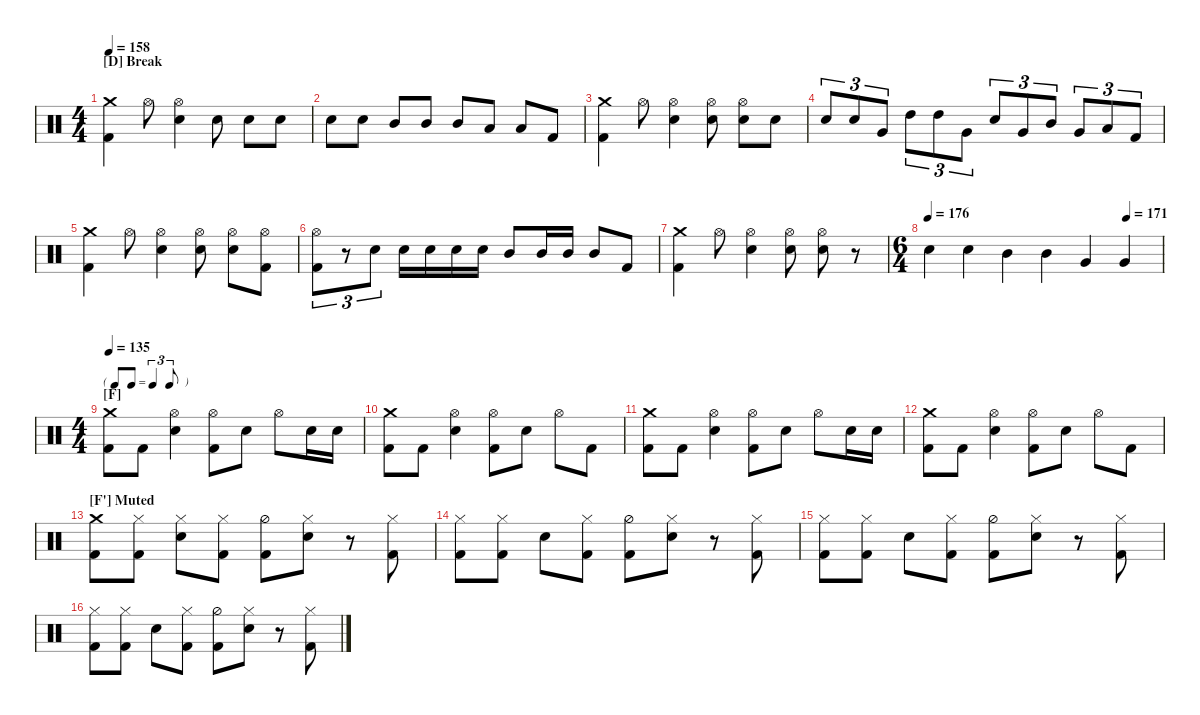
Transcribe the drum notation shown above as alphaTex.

\defaultSystemsLayout 4
\hideDynamics
\bracketExtendMode nobrackets
\singleTrackTrackNamePolicy hidden
\multiTrackTrackNamePolicy hidden
\firstSystemTrackNameMode fullname
\firstSystemTrackNameOrientation horizontal
\otherSystemsTrackNameOrientation horizontal
\track ("Drum" "Drums") {instrument percussion}
\staff {score}
\articulation defaults
\ts (4 4)
\section ("D" "Break")
\scale
0.296651
\tempo 158
\accidentals auto
\clef neutral
\ottava regular
\simile none
\scale
0.209581
\ks c
("Kick (hit) 2" "Crash medium (hit)").4{dy f beam Down} "Hi-Hat (open)".8{beam Down} ("Snare (hit) 2" "Hi-Hat (open)").4{beam Down} "Snare (hit) 2".8{beam Down} "Snare (hit) 2".8{beam Down} "Snare (hit) 2".8{beam Down} |
\scale
0.150718
\scale
0.239521 "Snare (hit) 2".8{beam Down} "Snare (hit) 2".8{beam Down} "Mid Tom (hit)".8{beam Up} "Mid Tom (hit)".8{beam Up} "Mid Tom (hit)".8{beam Up} "Low Tom (hit)".8{beam Up} "Low Tom (hit)".8{beam Up} "Kick (hit) 2".8{beam Up} |
\scale
0.401914
\scale
0.209581 ("Kick (hit) 2" "Crash medium (hit)").4{beam Down} "Hi-Hat (open)".8{beam Down} ("Snare (hit) 2" "Hi-Hat (open)").4{beam Down} ("Snare (hit) 2" "Hi-Hat (open)").8{beam Down} ("Snare (hit) 2" "Hi-Hat (open)").8{beam Down} "Snare (hit) 2".8{beam Down} |
\scale
0.150718
\scale
0.341317 "Snare (hit) 2".8{tu (3 2) beam Up} "Snare (hit) 2".8{tu (3 2) beam Up} "Very Low Tom (hit)".8{tu (3 2) beam Up} "High Tom (hit)".8{tu (3 2) beam Down} "High Tom (hit)".8{tu (3 2) beam Down} "Very Low Tom (hit)".8{tu (3 2) beam Down} "Snare (hit) 2".8{tu (3 2) beam Up} "Very Low Tom (hit)".8{tu (3 2) beam Up} "Mid Tom (hit)".8{tu (3 2) beam Up} "Very Low Tom (hit)".8{tu (3 2) beam Up} "Low Tom (hit)".8{tu (3 2) beam Up} "Kick (hit) 2".8{tu (3 2) beam Up} |
\scale
0.280543
\scale
0.20438 ("Kick (hit) 2" "Crash medium (hit)").4{beam Down} "Hi-Hat (open)".8{beam Down} ("Snare (hit) 2" "Hi-Hat (open)").4{beam Down} ("Snare (hit) 2" "Hi-Hat (open)").8{beam Down} ("Snare (hit) 2" "Hi-Hat (open)").8{beam Down} ("Kick (hit) 2" "Hi-Hat (open)").8{beam Down} |
\scale
0.142534
\scale
0.310949 ("Kick (hit) 2" "Hi-Hat (open)").8{tu (3 2) beam Down} r.8{tu (3 2) beam Down} "Snare (hit) 2".8{tu (3 2) beam Down} "Snare (hit) 2".16{beam Down} "Snare (hit) 2".16{beam Down} "Snare (hit) 2".16{beam Down} "Snare (hit) 2".16{beam Down} "Mid Tom (hit)".8{beam Up} "Mid Tom (hit)".16{beam Up} "Mid Tom (hit)".16{beam Up} "Mid Tom (hit)".8{beam Up} "Kick (hit) 2".8{beam Up} |
\scale
0.38009
\scale
0.20438 ("Kick (hit) 2" "Crash medium (hit)").4{beam Down} "Hi-Hat (open)".8{beam Down} ("Snare (hit) 2" "Hi-Hat (open)").4{beam Down} ("Snare (hit) 2" "Hi-Hat (open)").8{beam Down} ("Snare (hit) 2" "Hi-Hat (open)").8{beam Down} r.8{beam Down} |
\ts (6 4)
\scale
0.196833
\tempo 176
\tempo (171 0.85)
\scale
0.280292 "Snare (hit) 2".4{beam Down} "Snare (hit) 2".4{beam Down} "Mid Tom (hit)".4{beam Down} "Mid Tom (hit)".4{beam Down} "Very Low Tom (hit)".4{beam Up} "Very Low Tom (hit)".4{beam Up} |
\ts (4 4)
\tf triplet8th
\section ("F" "")
\scale
0.275862
\tempo 135
\scale
0.295252 ("Kick (hit) 2" "Crash medium (hit)").8{beam Down} "Kick (hit) 2".8{beam Down} ("Snare (hit) 2" "Hi-Hat (open)").4{beam Down} ("Kick (hit) 2" "Hi-Hat (open)").8{beam Down} "Snare (hit) 2".8{beam Down} "Hi-Hat (open)".8{beam Down} "Snare (hit) 2".16{beam Down} "Snare (hit) 2".16{beam Down} |
\scale
0.241379
\scale
0.222552 ("Kick (hit) 2" "Crash medium (hit)").8{beam Down} "Kick (hit) 2".8{beam Down} ("Snare (hit) 2" "Hi-Hat (open)").4{beam Down} ("Kick (hit) 2" "Hi-Hat (open)").8{beam Down} "Snare (hit) 2".8{beam Down} "Hi-Hat (open)".8{beam Down} "Kick (hit) 2".8{beam Down} |
\scale
0.241379
\scale
0.259644 ("Kick (hit) 2" "Crash medium (hit)").8{beam Down} "Kick (hit) 2".8{beam Down} ("Snare (hit) 2" "Hi-Hat (open)").4{beam Down} ("Kick (hit) 2" "Hi-Hat (open)").8{beam Down} "Snare (hit) 2".8{beam Down} "Hi-Hat (open)".8{beam Down} "Snare (hit) 2".16{beam Down} "Snare (hit) 2".16{beam Down} |
\scale
0.241379
\scale
0.222552 ("Kick (hit) 2" "Crash medium (hit)").8{beam Down} "Kick (hit) 2".8{beam Down} ("Snare (hit) 2" "Hi-Hat (open)").4{beam Down} ("Kick (hit) 2" "Hi-Hat (open)").8{beam Down} "Snare (hit) 2".8{beam Down} "Hi-Hat (open)".8{beam Down} "Kick (hit) 2".8{beam Down} |
\section ("F'" "Muted")
\scale
0.25
\scale
0.25 ("Kick (hit) 2" "Crash medium (hit)").8{beam Down} ("Kick (hit) 2" "Hi-Hat (closed)").8{beam Down} ("Snare (hit) 2" "Hi-Hat (closed)").8{beam Down} ("Kick (hit) 2" "Hi-Hat (closed)").8{beam Down} ("Kick (hit) 2" "Hi-Hat (half)").8{beam Down} ("Snare (hit) 2" "Hi-Hat (closed)").8{beam Down} r.8{beam Down} ("Kick (hit) 2" "Hi-Hat (closed)").8{beam Down} |
\scale
0.25
\scale
0.25 ("Kick (hit) 2" "Hi-Hat (closed)").8{beam Down} ("Kick (hit) 2" "Hi-Hat (closed)").8{beam Down} "Snare (hit) 2".8{beam Down} ("Kick (hit) 2" "Hi-Hat (closed)").8{beam Down} ("Kick (hit) 2" "Hi-Hat (half)").8{beam Down} ("Snare (hit) 2" "Hi-Hat (closed)").8{beam Down} r.8{beam Down} ("Kick (hit) 2" "Hi-Hat (closed)").8{beam Down} |
\scale
0.25
\scale
0.25 ("Kick (hit) 2" "Hi-Hat (closed)").8{beam Down} ("Kick (hit) 2" "Hi-Hat (closed)").8{beam Down} "Snare (hit) 2".8{beam Down} ("Kick (hit) 2" "Hi-Hat (closed)").8{beam Down} ("Kick (hit) 2" "Hi-Hat (half)").8{beam Down} ("Snare (hit) 2" "Hi-Hat (closed)").8{beam Down} r.8{beam Down} ("Kick (hit) 2" "Hi-Hat (closed)").8{beam Down} |
\scale
0.25
\scale
0.25 ("Kick (hit) 2" "Hi-Hat (closed)").8{beam Down} ("Kick (hit) 2" "Hi-Hat (closed)").8{beam Down} "Snare (hit) 2".8{beam Down} ("Kick (hit) 2" "Hi-Hat (closed)").8{beam Down} ("Kick (hit) 2" "Hi-Hat (half)").8{beam Down} ("Snare (hit) 2" "Hi-Hat (closed)").8{beam Down} r.8{beam Down} ("Kick (hit) 2" "Hi-Hat (closed)").8{beam Down}
